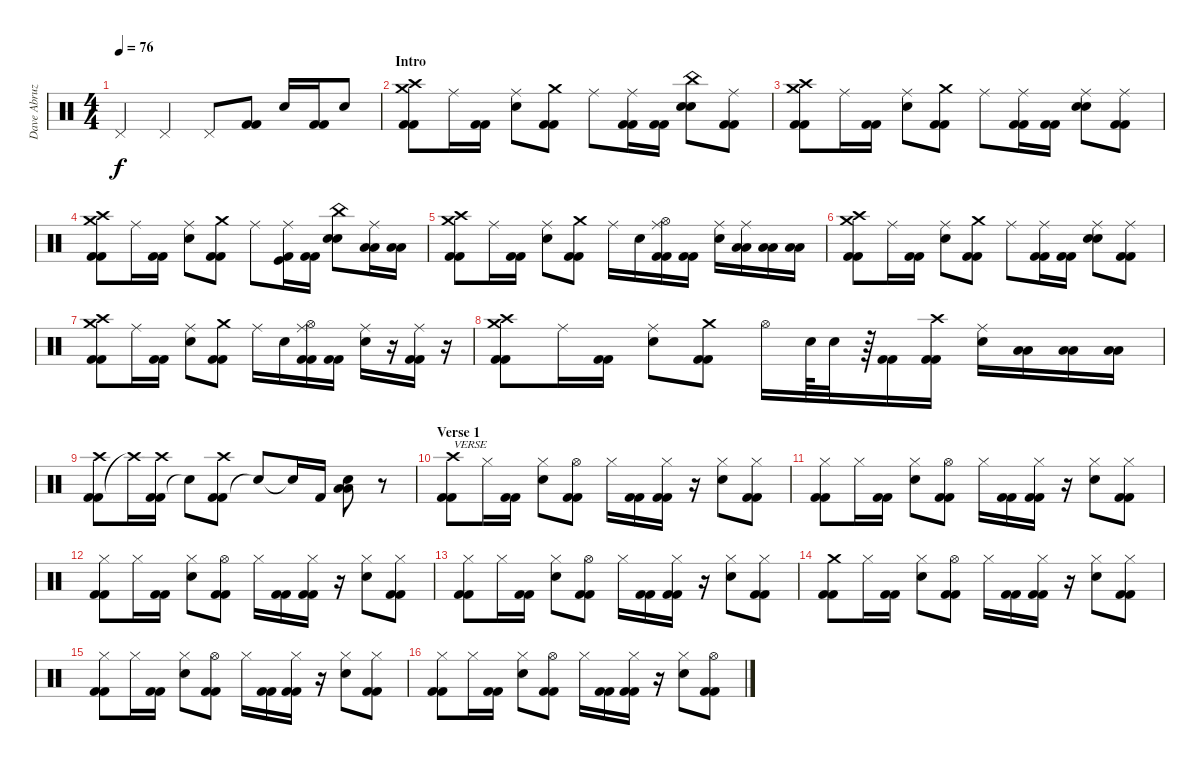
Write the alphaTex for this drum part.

\track ("Dave Abruzzese" "Dave Abruz") {instrument percussion}
\staff {score}
\articulation defaults
\ts (4 4)
\tempo 76
\clef neutral
\ks c "Pedal Hi-Hat (hit)".4{dy f} "Pedal Hi-Hat (hit)".4 "Pedal Hi-Hat (hit)".8
("Kick (hit) 2" "Kick (hit) 2").8 "Electric Snare (hit)".16 ("Kick (hit) 2" "Kick (hit) 2").16 "Electric Snare (hit)".8 |
\section ("" "Intro")
("Crash medium (hit)" "Kick (hit) 2" "Kick (hit) 2" "Crash high (hit)").8 "Ride (middle)".16 ("Kick (hit) 2" "Kick (hit) 2").16 ("Electric Snare (hit)" "Ride (middle)").8 ("Kick (hit) 2" "Kick (hit) 2" "Crash medium (hit)").8 "Ride (middle)".8 ("Kick (hit) 2" "Kick (hit) 2" "Ride (middle)").16 ("Kick (hit) 2" "Kick (hit) 2").16 ("Electric Snare (hit)" "Electric Snare (hit)" "China (hit)").8 ("Kick (hit) 2" "Kick (hit) 2" "Ride (middle)").8 |
("Crash medium (hit)" "Kick (hit) 2" "Kick (hit) 2" "Crash high (hit)").8 "Ride (middle)".16 ("Kick (hit) 2" "Kick (hit) 2").16 ("Electric Snare (hit)" "Ride (middle)").8 ("Kick (hit) 2" "Kick (hit) 2" "Crash medium (hit)").8 "Ride (middle)".8 ("Kick (hit) 2" "Kick (hit) 2" "Ride (middle)").16 ("Kick (hit) 2" "Kick (hit) 2").16 ("Electric Snare (hit)" "Electric Snare (hit)" "Ride (middle)").8 ("Kick (hit) 2" "Kick (hit) 2" "Ride (middle)").8 |
("Crash medium (hit)" "Kick (hit) 2" "Kick (hit) 2" "Crash high (hit)").8 "Ride (middle)".16 ("Kick (hit) 2" "Kick (hit) 2").16 ("Electric Snare (hit)" "Ride (middle)").8 ("Kick (hit) 2" "Kick (hit) 2" "Crash medium (hit)").8 "Ride (middle)".8 ("Kick (hit)" "Kick (hit) 2" "Ride (middle)").16 ("Kick (hit) 2" "Kick (hit) 2").16 ("Electric Snare (hit)" "Electric Snare (hit)" "China (hit)").8 ("Low Tom (hit)" "Low Tom (hit)" "Ride (middle)").16 ("Low Tom (hit)" "Low Tom (hit)").16 |
("Crash medium (hit)" "Kick (hit) 2" "Kick (hit) 2" "Crash high (hit)").8 "Ride (middle)".16 ("Kick (hit) 2" "Kick (hit) 2").16 ("Electric Snare (hit)" "Ride (middle)").8 ("Kick (hit) 2" "Kick (hit) 2" "Crash medium (hit)").8 "Ride (middle)".16 "Electric Snare (hit)".16 ("Hi-Hat (open)" "Kick (hit) 2" "Kick (hit) 2" "Ride (middle)").16 ("Kick (hit) 2" "Kick (hit) 2").16 ("Electric Snare (hit)" "Ride (middle)").16 ("Low Tom (hit)" "Low Tom (hit)" "Ride (middle)").16 ("Low Tom (hit)" "Low Tom (hit)").16 ("Low Tom (hit)" "Low Tom (hit)").16 |
("Crash medium (hit)" "Kick (hit) 2" "Kick (hit) 2" "Crash high (hit)").8 "Ride (middle)".16 ("Kick (hit) 2" "Kick (hit) 2").16 ("Electric Snare (hit)" "Ride (middle)").8 ("Kick (hit) 2" "Kick (hit) 2" "Crash medium (hit)").8 "Ride (middle)".8 ("Kick (hit) 2" "Kick (hit) 2" "Ride (middle)").16 ("Kick (hit) 2" "Kick (hit) 2").16 ("Electric Snare (hit)" "Electric Snare (hit)" "Ride (middle)").8 ("Kick (hit) 2" "Kick (hit) 2" "Ride (middle)").8 |
("Crash medium (hit)" "Kick (hit) 2" "Kick (hit) 2" "Crash high (hit)").8 "Ride (middle)".16 ("Kick (hit) 2" "Kick (hit) 2").16 ("Electric Snare (hit)" "Ride (middle)").8 ("Kick (hit) 2" "Kick (hit) 2" "Crash medium (hit)").8 "Ride (middle)".16 "Electric Snare (hit)".16 ("Hi-Hat (open)" "Kick (hit) 2" "Kick (hit) 2" "Ride (middle)").16 ("Kick (hit) 2" "Kick (hit) 2").16 ("Electric Snare (hit)" "Ride (middle)").16 r.16 ("Kick (hit) 2" "Kick (hit) 2" "Ride (middle)").16 r.16 |
("Crash medium (hit)" "Kick (hit) 2" "Kick (hit) 2" "Crash high (hit)").8 "Ride (middle)".16 ("Kick (hit) 2" "Kick (hit) 2").16 ("Electric Snare (hit)" "Ride (middle)").8 ("Kick (hit) 2" "Kick (hit) 2" "Crash medium (hit)").8 "Hi-Hat (open)".16 "Electric Snare (hit)".64 "Electric Snare (hit)".32 r.64 ("Kick (hit) 2" "Kick (hit) 2").16 ("Kick (hit) 2" "Kick (hit) 2" "Crash high (hit)").16 ("Electric Snare (hit)" "Ride (middle)").16 ("Low Tom (hit)" "Low Tom (hit)").16 ("Low Tom (hit)" "Low Tom (hit)").16 ("Low Tom (hit)" "Low Tom (hit)").16 |
("Kick (hit) 2" "Kick (hit) 2" "Crash high (hit)").8 "Crash high (hit)"{t}.16 ("Kick (hit) 2" "Kick (hit) 2" "Crash high (hit)").16 "Snare (hit)"{t}.8 ("Kick (hit) 2" "Kick (hit) 2" "Crash high (hit)").8 "Snare (hit)"{t}.8 "Snare (hit)"{t}.16 "Kick (hit) 2".16 ("Low Tom (hit)" "Low Tom (hit)" "Electric Snare (hit)").8 r.8 |
\section ("" "Verse 1")
("Kick (hit) 2" "Kick (hit) 2" "Crash high (hit)").8{txt "VERSE"} "Hi-Hat (closed)".16 ("Kick (hit) 2" "Kick (hit) 2").16 ("Electric Snare (hit)" "Hi-Hat (closed)").8 ("Kick (hit) 2" "Kick (hit) 2" "Hi-Hat (open)").8 "Hi-Hat (closed)".16 ("Kick (hit) 2" "Kick (hit) 2").16 ("Kick (hit) 2" "Kick (hit) 2" "Hi-Hat (closed)").16 r.16 ("Electric Snare (hit)" "Hi-Hat (closed)").8 ("Kick (hit) 2" "Kick (hit) 2" "Hi-Hat (closed)").8 |
("Kick (hit) 2" "Kick (hit) 2" "Hi-Hat (closed)").8 "Hi-Hat (closed)".16 ("Kick (hit) 2" "Kick (hit) 2").16 ("Electric Snare (hit)" "Hi-Hat (closed)").8 ("Kick (hit) 2" "Kick (hit) 2" "Hi-Hat (open)").8 "Hi-Hat (closed)".16 ("Kick (hit) 2" "Kick (hit) 2").16 ("Kick (hit) 2" "Kick (hit) 2" "Hi-Hat (closed)").16 r.16 ("Electric Snare (hit)" "Hi-Hat (closed)").8 ("Kick (hit) 2" "Kick (hit) 2" "Hi-Hat (closed)").8 |
("Kick (hit) 2" "Kick (hit) 2" "Hi-Hat (closed)").8 "Hi-Hat (closed)".16 ("Kick (hit) 2" "Kick (hit) 2").16 ("Electric Snare (hit)" "Hi-Hat (closed)").8 ("Kick (hit) 2" "Kick (hit) 2" "Hi-Hat (open)").8 "Hi-Hat (closed)".16 ("Kick (hit) 2" "Kick (hit) 2").16 ("Kick (hit) 2" "Kick (hit) 2" "Hi-Hat (closed)").16 r.16 ("Electric Snare (hit)" "Hi-Hat (closed)").8 ("Kick (hit) 2" "Kick (hit) 2" "Hi-Hat (closed)").8 |
("Kick (hit) 2" "Kick (hit) 2" "Hi-Hat (closed)").8 "Hi-Hat (closed)".16 ("Kick (hit) 2" "Kick (hit) 2").16 ("Electric Snare (hit)" "Hi-Hat (closed)").8 ("Kick (hit) 2" "Kick (hit) 2" "Hi-Hat (open)").8 "Hi-Hat (closed)".16 ("Kick (hit) 2" "Kick (hit) 2").16 ("Kick (hit) 2" "Kick (hit) 2" "Hi-Hat (closed)").16 r.16 ("Electric Snare (hit)" "Hi-Hat (closed)").8 ("Kick (hit) 2" "Kick (hit) 2" "Hi-Hat (closed)").8 |
("Kick (hit) 2" "Kick (hit) 2" "Crash medium (hit)").8 "Hi-Hat (closed)".16 ("Kick (hit) 2" "Kick (hit) 2").16 ("Electric Snare (hit)" "Hi-Hat (closed)").8 ("Kick (hit) 2" "Kick (hit) 2" "Hi-Hat (open)").8 "Hi-Hat (closed)".16 ("Kick (hit) 2" "Kick (hit) 2").16 ("Kick (hit) 2" "Kick (hit) 2" "Hi-Hat (closed)").16 r.16 ("Electric Snare (hit)" "Hi-Hat (closed)").8 ("Kick (hit) 2" "Kick (hit) 2" "Hi-Hat (closed)").8 |
("Kick (hit) 2" "Kick (hit) 2" "Hi-Hat (closed)").8 "Hi-Hat (closed)".16 ("Kick (hit) 2" "Kick (hit) 2").16 ("Electric Snare (hit)" "Hi-Hat (closed)").8 ("Kick (hit) 2" "Kick (hit) 2" "Hi-Hat (open)").8 "Hi-Hat (closed)".16 ("Kick (hit) 2" "Kick (hit) 2").16 ("Kick (hit) 2" "Kick (hit) 2" "Hi-Hat (closed)").16 r.16 ("Electric Snare (hit)" "Hi-Hat (closed)").8 ("Kick (hit) 2" "Kick (hit) 2" "Hi-Hat (closed)").8 |
("Kick (hit) 2" "Kick (hit) 2" "Hi-Hat (closed)").8 "Hi-Hat (closed)".16 ("Kick (hit) 2" "Kick (hit) 2").16 ("Electric Snare (hit)" "Hi-Hat (closed)").8 ("Kick (hit) 2" "Kick (hit) 2" "Hi-Hat (open)").8 "Hi-Hat (closed)".16 ("Kick (hit) 2" "Kick (hit) 2").16 ("Kick (hit) 2" "Kick (hit) 2" "Hi-Hat (closed)").16 r.16 ("Electric Snare (hit)" "Hi-Hat (closed)").8 ("Kick (hit) 2" "Kick (hit) 2" "Hi-Hat (open)").8
